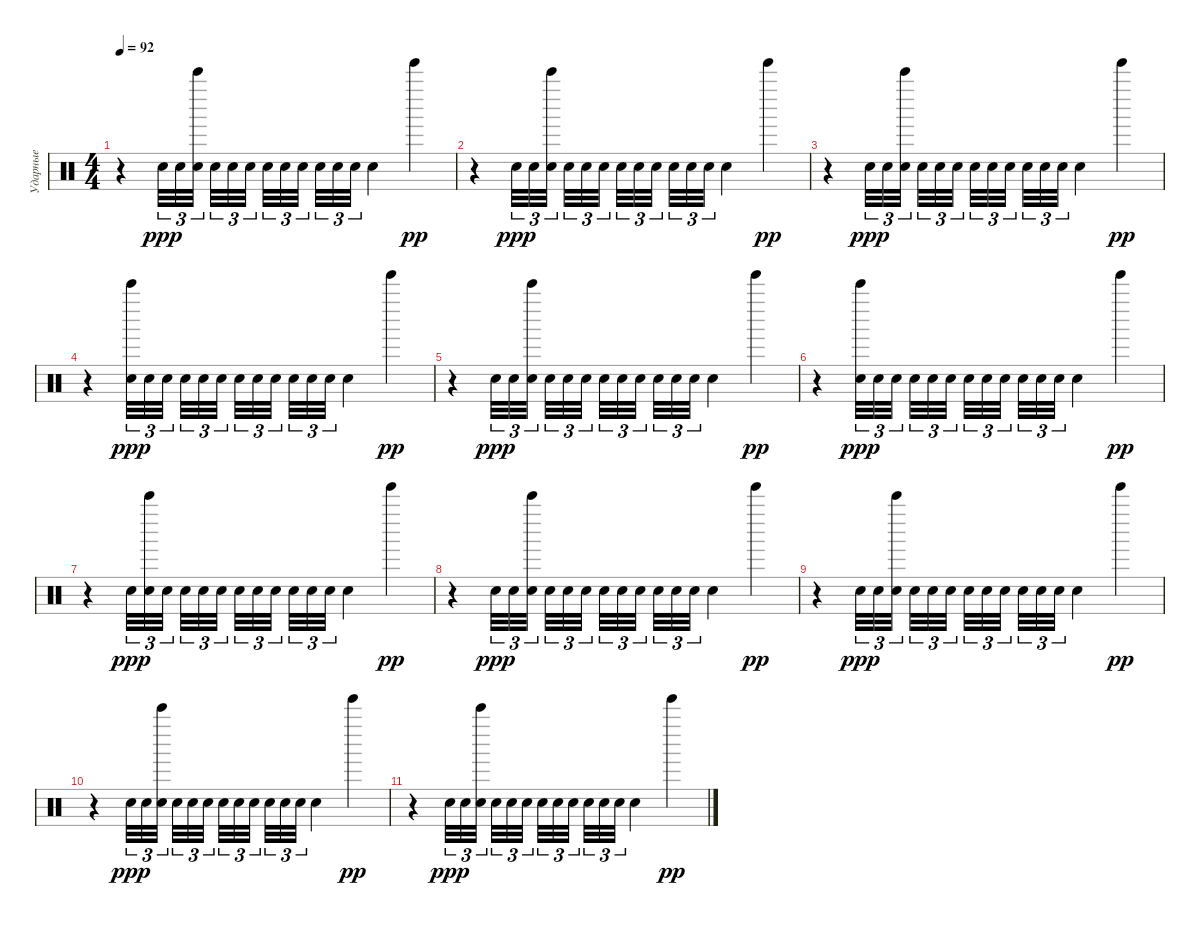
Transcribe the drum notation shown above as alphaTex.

\track ("Ударные" "Ударные") {instrument percussion}
\staff {score}
\articulation defaults
\ts (4 4)
\tempo 92
\clef neutral
\ks c
r.4{dy pp} "Electric Snare (hit)".32{tu (3 2) dy ppp} "Electric Snare (hit)".32{tu (3 2)} ("Bell Tree (hit)" "Electric Snare (hit)").32{tu (3 2) beam splitsecondary} "Electric Snare (hit)".32{tu (3 2)} "Electric Snare (hit)".32{tu (3 2)} "Electric Snare (hit)".32{tu (3 2) beam splitsecondary} "Electric Snare (hit)".32{tu (3 2)} "Electric Snare (hit)".32{tu (3 2)} "Electric Snare (hit)".32{tu (3 2) beam splitsecondary} "Electric Snare (hit)".32{tu (3 2)} "Electric Snare (hit)".32{tu (3 2)} "Electric Snare (hit)".32{tu (3 2)} "Electric Snare (hit)".4 "Tinkle Bell (hit)".4{dy pp} |
r.4 "Electric Snare (hit)".32{tu (3 2) dy ppp} "Electric Snare (hit)".32{tu (3 2)} ("Bell Tree (hit)" "Electric Snare (hit)").32{tu (3 2) beam splitsecondary} "Electric Snare (hit)".32{tu (3 2)} "Electric Snare (hit)".32{tu (3 2)} "Electric Snare (hit)".32{tu (3 2) beam splitsecondary} "Electric Snare (hit)".32{tu (3 2)} "Electric Snare (hit)".32{tu (3 2)} "Electric Snare (hit)".32{tu (3 2) beam splitsecondary} "Electric Snare (hit)".32{tu (3 2)} "Electric Snare (hit)".32{tu (3 2)} "Electric Snare (hit)".32{tu (3 2)} "Electric Snare (hit)".4 "Tinkle Bell (hit)".4{dy pp} |
r.4 "Electric Snare (hit)".32{tu (3 2) dy ppp} "Electric Snare (hit)".32{tu (3 2)} ("Bell Tree (hit)" "Electric Snare (hit)").32{tu (3 2) beam splitsecondary} "Electric Snare (hit)".32{tu (3 2)} "Electric Snare (hit)".32{tu (3 2)} "Electric Snare (hit)".32{tu (3 2) beam splitsecondary} "Electric Snare (hit)".32{tu (3 2)} "Electric Snare (hit)".32{tu (3 2)} "Electric Snare (hit)".32{tu (3 2) beam splitsecondary} "Electric Snare (hit)".32{tu (3 2)} "Electric Snare (hit)".32{tu (3 2)} "Electric Snare (hit)".32{tu (3 2)} "Electric Snare (hit)".4 "Tinkle Bell (hit)".4{dy pp} |
r.4 ("Bell Tree (hit)" "Electric Snare (hit)").32{tu (3 2) dy ppp} "Electric Snare (hit)".32{tu (3 2)} "Electric Snare (hit)".32{tu (3 2) beam splitsecondary} "Electric Snare (hit)".32{tu (3 2)} "Electric Snare (hit)".32{tu (3 2)} "Electric Snare (hit)".32{tu (3 2) beam splitsecondary} "Electric Snare (hit)".32{tu (3 2)} "Electric Snare (hit)".32{tu (3 2)} "Electric Snare (hit)".32{tu (3 2) beam splitsecondary} "Electric Snare (hit)".32{tu (3 2)} "Electric Snare (hit)".32{tu (3 2)} "Electric Snare (hit)".32{tu (3 2)} "Electric Snare (hit)".4 "Tinkle Bell (hit)".4{dy pp} |
r.4 "Electric Snare (hit)".32{tu (3 2) dy ppp} "Electric Snare (hit)".32{tu (3 2)} ("Bell Tree (hit)" "Electric Snare (hit)").32{tu (3 2) beam splitsecondary} "Electric Snare (hit)".32{tu (3 2)} "Electric Snare (hit)".32{tu (3 2)} "Electric Snare (hit)".32{tu (3 2) beam splitsecondary} "Electric Snare (hit)".32{tu (3 2)} "Electric Snare (hit)".32{tu (3 2)} "Electric Snare (hit)".32{tu (3 2) beam splitsecondary} "Electric Snare (hit)".32{tu (3 2)} "Electric Snare (hit)".32{tu (3 2)} "Electric Snare (hit)".32{tu (3 2)} "Electric Snare (hit)".4 "Tinkle Bell (hit)".4{dy pp} |
r.4 ("Bell Tree (hit)" "Electric Snare (hit)").32{tu (3 2) dy ppp} "Electric Snare (hit)".32{tu (3 2)} "Electric Snare (hit)".32{tu (3 2) beam splitsecondary} "Electric Snare (hit)".32{tu (3 2)} "Electric Snare (hit)".32{tu (3 2)} "Electric Snare (hit)".32{tu (3 2) beam splitsecondary} "Electric Snare (hit)".32{tu (3 2)} "Electric Snare (hit)".32{tu (3 2)} "Electric Snare (hit)".32{tu (3 2) beam splitsecondary} "Electric Snare (hit)".32{tu (3 2)} "Electric Snare (hit)".32{tu (3 2)} "Electric Snare (hit)".32{tu (3 2)} "Electric Snare (hit)".4 "Tinkle Bell (hit)".4{dy pp} |
r.4 "Electric Snare (hit)".32{tu (3 2) dy ppp} ("Bell Tree (hit)" "Electric Snare (hit)").32{tu (3 2)} "Electric Snare (hit)".32{tu (3 2) beam splitsecondary} "Electric Snare (hit)".32{tu (3 2)} "Electric Snare (hit)".32{tu (3 2)} "Electric Snare (hit)".32{tu (3 2) beam splitsecondary} "Electric Snare (hit)".32{tu (3 2)} "Electric Snare (hit)".32{tu (3 2)} "Electric Snare (hit)".32{tu (3 2) beam splitsecondary} "Electric Snare (hit)".32{tu (3 2)} "Electric Snare (hit)".32{tu (3 2)} "Electric Snare (hit)".32{tu (3 2)} "Electric Snare (hit)".4 "Tinkle Bell (hit)".4{dy pp} |
r.4 "Electric Snare (hit)".32{tu (3 2) dy ppp} "Electric Snare (hit)".32{tu (3 2)} ("Bell Tree (hit)" "Electric Snare (hit)").32{tu (3 2) beam splitsecondary} "Electric Snare (hit)".32{tu (3 2)} "Electric Snare (hit)".32{tu (3 2)} "Electric Snare (hit)".32{tu (3 2) beam splitsecondary} "Electric Snare (hit)".32{tu (3 2)} "Electric Snare (hit)".32{tu (3 2)} "Electric Snare (hit)".32{tu (3 2) beam splitsecondary} "Electric Snare (hit)".32{tu (3 2)} "Electric Snare (hit)".32{tu (3 2)} "Electric Snare (hit)".32{tu (3 2)} "Electric Snare (hit)".4 "Tinkle Bell (hit)".4{dy pp} |
r.4 "Electric Snare (hit)".32{tu (3 2) dy ppp} "Electric Snare (hit)".32{tu (3 2)} ("Bell Tree (hit)" "Electric Snare (hit)").32{tu (3 2) beam splitsecondary} "Electric Snare (hit)".32{tu (3 2)} "Electric Snare (hit)".32{tu (3 2)} "Electric Snare (hit)".32{tu (3 2) beam splitsecondary} "Electric Snare (hit)".32{tu (3 2)} "Electric Snare (hit)".32{tu (3 2)} "Electric Snare (hit)".32{tu (3 2) beam splitsecondary} "Electric Snare (hit)".32{tu (3 2)} "Electric Snare (hit)".32{tu (3 2)} "Electric Snare (hit)".32{tu (3 2)} "Electric Snare (hit)".4 "Tinkle Bell (hit)".4{dy pp} |
r.4 "Electric Snare (hit)".32{tu (3 2) dy ppp} "Electric Snare (hit)".32{tu (3 2)} ("Bell Tree (hit)" "Electric Snare (hit)").32{tu (3 2) beam splitsecondary} "Electric Snare (hit)".32{tu (3 2)} "Electric Snare (hit)".32{tu (3 2)} "Electric Snare (hit)".32{tu (3 2) beam splitsecondary} "Electric Snare (hit)".32{tu (3 2)} "Electric Snare (hit)".32{tu (3 2)} "Electric Snare (hit)".32{tu (3 2) beam splitsecondary} "Electric Snare (hit)".32{tu (3 2)} "Electric Snare (hit)".32{tu (3 2)} "Electric Snare (hit)".32{tu (3 2)} "Electric Snare (hit)".4 "Tinkle Bell (hit)".4{dy pp} |
r.4 "Electric Snare (hit)".32{tu (3 2) dy ppp} "Electric Snare (hit)".32{tu (3 2)} ("Bell Tree (hit)" "Electric Snare (hit)").32{tu (3 2) beam splitsecondary} "Electric Snare (hit)".32{tu (3 2)} "Electric Snare (hit)".32{tu (3 2)} "Electric Snare (hit)".32{tu (3 2) beam splitsecondary} "Electric Snare (hit)".32{tu (3 2)} "Electric Snare (hit)".32{tu (3 2)} "Electric Snare (hit)".32{tu (3 2) beam splitsecondary} "Electric Snare (hit)".32{tu (3 2)} "Electric Snare (hit)".32{tu (3 2)} "Electric Snare (hit)".32{tu (3 2)} "Electric Snare (hit)".4 "Tinkle Bell (hit)".4{dy pp}
